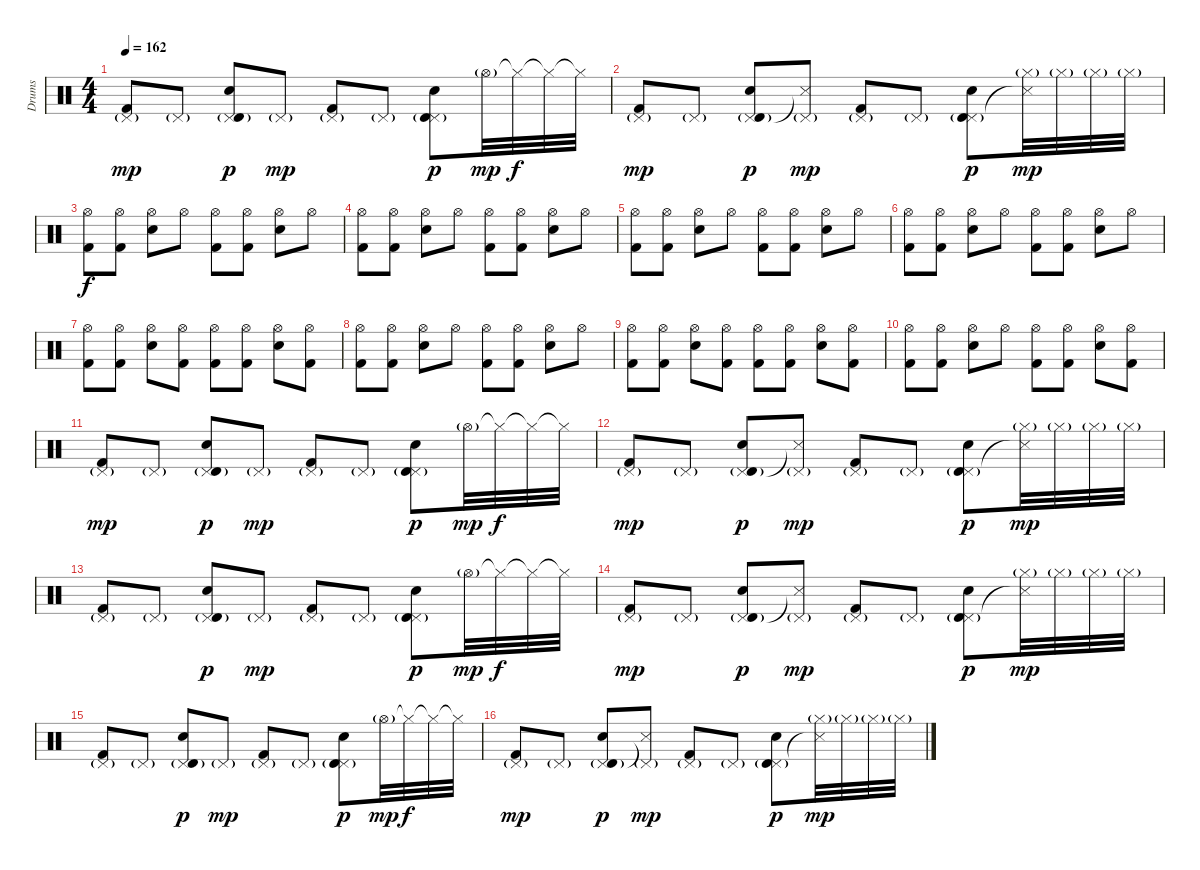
\track ("Drums" "Drums") {instrument percussion}
\staff {score}
\articulation defaults
\ts (4 4)
\tempo 162
\clef neutral
\ks c
("Pedal Hi-Hat (hit)"{g} "Kick (hit) 2").8{dy mp} "Pedal Hi-Hat (hit)"{g}.8 ("Pedal Hi-Hat (hit)"{g} "Timbale high (hit)" "Electric Snare (hit)").8{dy p} "Pedal Hi-Hat (hit)"{g}.8{dy mp} ("Pedal Hi-Hat (hit)"{g} "Kick (hit) 2").8 "Pedal Hi-Hat (hit)"{g}.8 ("Pedal Hi-Hat (hit)"{g} "Timbale high (hit)" "Electric Snare (hit)").8{dy p} "Hi-Hat (open)"{g}.32{dy mp} "Hi-Hat (closed)"{t}.32{dy f} "Hi-Hat (closed)"{t}.32 "Hi-Hat (closed)"{t}.32 |
("Pedal Hi-Hat (hit)"{g} "Kick (hit) 2").8{dy mp} "Pedal Hi-Hat (hit)"{g}.8 ("Pedal Hi-Hat (hit)"{g} "Timbale high (hit)" "Electric Snare (hit)").8{dy p} ("Pedal Hi-Hat (hit)"{g} "Snare (side stick) 3"{t}).8{dy mp} ("Pedal Hi-Hat (hit)"{g} "Kick (hit) 2").8 "Pedal Hi-Hat (hit)"{g}.8 ("Pedal Hi-Hat (hit)"{g} "Timbale high (hit)" "Electric Snare (hit)").8{dy p} ("Hi-Hat (closed)"{g} "Snare (side stick) 3"{t}).32{dy mp} "Hi-Hat (closed)"{g}.32 "Hi-Hat (closed)"{g}.32 "Hi-Hat (closed)"{g}.32 |
("Hi-Hat (open)" "Kick (hit) 2").8{dy f} ("Hi-Hat (open)" "Kick (hit) 2").8 ("Hi-Hat (open)" "Electric Snare (hit)").8 "Hi-Hat (open)".8 ("Hi-Hat (open)" "Kick (hit) 2").8 ("Hi-Hat (open)" "Kick (hit) 2").8 ("Hi-Hat (open)" "Electric Snare (hit)").8 "Hi-Hat (open)".8 |
("Hi-Hat (open)" "Kick (hit) 2").8 ("Hi-Hat (open)" "Kick (hit) 2").8 ("Hi-Hat (open)" "Electric Snare (hit)").8 "Hi-Hat (open)".8 ("Hi-Hat (open)" "Kick (hit) 2").8 ("Hi-Hat (open)" "Kick (hit) 2").8 ("Hi-Hat (open)" "Electric Snare (hit)").8 "Hi-Hat (open)".8 |
("Hi-Hat (open)" "Kick (hit) 2").8 ("Hi-Hat (open)" "Kick (hit) 2").8 ("Hi-Hat (open)" "Electric Snare (hit)").8 "Hi-Hat (open)".8 ("Hi-Hat (open)" "Kick (hit) 2").8 ("Hi-Hat (open)" "Kick (hit) 2").8 ("Hi-Hat (open)" "Electric Snare (hit)").8 "Hi-Hat (open)".8 |
("Hi-Hat (open)" "Kick (hit) 2").8 ("Hi-Hat (open)" "Kick (hit) 2").8 ("Hi-Hat (open)" "Electric Snare (hit)").8 "Hi-Hat (open)".8 ("Hi-Hat (open)" "Kick (hit) 2").8 ("Hi-Hat (open)" "Kick (hit) 2").8 ("Hi-Hat (open)" "Electric Snare (hit)").8 "Hi-Hat (open)".8 |
("Hi-Hat (open)" "Kick (hit) 2").8 ("Hi-Hat (open)" "Kick (hit) 2").8 ("Hi-Hat (open)" "Electric Snare (hit)").8 ("Hi-Hat (open)" "Kick (hit) 2").8 ("Hi-Hat (open)" "Kick (hit) 2").8 ("Hi-Hat (open)" "Kick (hit) 2").8 ("Hi-Hat (open)" "Electric Snare (hit)").8 ("Hi-Hat (open)" "Kick (hit) 2").8 |
("Hi-Hat (open)" "Kick (hit) 2").8 ("Hi-Hat (open)" "Kick (hit) 2").8 ("Hi-Hat (open)" "Electric Snare (hit)").8 "Hi-Hat (open)".8 ("Hi-Hat (open)" "Kick (hit) 2").8 ("Hi-Hat (open)" "Kick (hit) 2").8 ("Hi-Hat (open)" "Electric Snare (hit)").8 "Hi-Hat (open)".8 |
("Hi-Hat (open)" "Kick (hit) 2").8 ("Hi-Hat (open)" "Kick (hit) 2").8 ("Hi-Hat (open)" "Electric Snare (hit)").8 ("Hi-Hat (open)" "Kick (hit) 2").8 ("Hi-Hat (open)" "Kick (hit) 2").8 ("Hi-Hat (open)" "Kick (hit) 2").8 ("Hi-Hat (open)" "Electric Snare (hit)").8 ("Hi-Hat (open)" "Kick (hit) 2").8 |
("Hi-Hat (open)" "Kick (hit) 2").8 ("Hi-Hat (open)" "Kick (hit) 2").8 ("Hi-Hat (open)" "Electric Snare (hit)").8 "Hi-Hat (open)".8 ("Hi-Hat (open)" "Kick (hit) 2").8 ("Hi-Hat (open)" "Kick (hit) 2").8 ("Hi-Hat (open)" "Electric Snare (hit)").8 ("Hi-Hat (open)" "Kick (hit) 2").8 |
("Pedal Hi-Hat (hit)"{g} "Kick (hit) 2").8{dy mp} "Pedal Hi-Hat (hit)"{g}.8 ("Pedal Hi-Hat (hit)"{g} "Timbale high (hit)" "Electric Snare (hit)").8{dy p} "Pedal Hi-Hat (hit)"{g}.8{dy mp} ("Pedal Hi-Hat (hit)"{g} "Kick (hit) 2").8 "Pedal Hi-Hat (hit)"{g}.8 ("Pedal Hi-Hat (hit)"{g} "Timbale high (hit)" "Electric Snare (hit)").8{dy p} "Hi-Hat (open)"{g}.32{dy mp} "Hi-Hat (closed)"{t}.32{dy f} "Hi-Hat (closed)"{t}.32 "Hi-Hat (closed)"{t}.32 |
("Pedal Hi-Hat (hit)"{g} "Kick (hit) 2").8{dy mp} "Pedal Hi-Hat (hit)"{g}.8 ("Pedal Hi-Hat (hit)"{g} "Timbale high (hit)" "Electric Snare (hit)").8{dy p} ("Pedal Hi-Hat (hit)"{g} "Snare (side stick) 3"{t}).8{dy mp} ("Pedal Hi-Hat (hit)"{g} "Kick (hit) 2").8 "Pedal Hi-Hat (hit)"{g}.8 ("Pedal Hi-Hat (hit)"{g} "Timbale high (hit)" "Electric Snare (hit)").8{dy p} ("Hi-Hat (closed)"{g} "Snare (side stick) 3"{t}).32{dy mp} "Hi-Hat (closed)"{g}.32 "Hi-Hat (closed)"{g}.32 "Hi-Hat (closed)"{g}.32 |
("Pedal Hi-Hat (hit)"{g} "Kick (hit) 2").8 "Pedal Hi-Hat (hit)"{g}.8 ("Pedal Hi-Hat (hit)"{g} "Timbale high (hit)" "Electric Snare (hit)").8{dy p} "Pedal Hi-Hat (hit)"{g}.8{dy mp} ("Pedal Hi-Hat (hit)"{g} "Kick (hit) 2").8 "Pedal Hi-Hat (hit)"{g}.8 ("Pedal Hi-Hat (hit)"{g} "Timbale high (hit)" "Electric Snare (hit)").8{dy p} "Hi-Hat (open)"{g}.32{dy mp} "Hi-Hat (closed)"{t}.32{dy f} "Hi-Hat (closed)"{t}.32 "Hi-Hat (closed)"{t}.32 |
("Pedal Hi-Hat (hit)"{g} "Kick (hit) 2").8{dy mp} "Pedal Hi-Hat (hit)"{g}.8 ("Pedal Hi-Hat (hit)"{g} "Timbale high (hit)" "Electric Snare (hit)").8{dy p} ("Pedal Hi-Hat (hit)"{g} "Snare (side stick) 3"{t}).8{dy mp} ("Pedal Hi-Hat (hit)"{g} "Kick (hit) 2").8 "Pedal Hi-Hat (hit)"{g}.8 ("Pedal Hi-Hat (hit)"{g} "Timbale high (hit)" "Electric Snare (hit)").8{dy p} ("Hi-Hat (closed)"{g} "Snare (side stick) 3"{t}).32{dy mp} "Hi-Hat (closed)"{g}.32 "Hi-Hat (closed)"{g}.32 "Hi-Hat (closed)"{g}.32 |
("Pedal Hi-Hat (hit)"{g} "Kick (hit) 2").8 "Pedal Hi-Hat (hit)"{g}.8 ("Pedal Hi-Hat (hit)"{g} "Timbale high (hit)" "Electric Snare (hit)").8{dy p} "Pedal Hi-Hat (hit)"{g}.8{dy mp} ("Pedal Hi-Hat (hit)"{g} "Kick (hit) 2").8 "Pedal Hi-Hat (hit)"{g}.8 ("Pedal Hi-Hat (hit)"{g} "Timbale high (hit)" "Electric Snare (hit)").8{dy p} "Hi-Hat (open)"{g}.32{dy mp} "Hi-Hat (closed)"{t}.32{dy f} "Hi-Hat (closed)"{t}.32 "Hi-Hat (closed)"{t}.32 |
("Pedal Hi-Hat (hit)"{g} "Kick (hit) 2").8{dy mp} "Pedal Hi-Hat (hit)"{g}.8 ("Pedal Hi-Hat (hit)"{g} "Timbale high (hit)" "Electric Snare (hit)").8{dy p} ("Pedal Hi-Hat (hit)"{g} "Snare (side stick) 3"{t}).8{dy mp} ("Pedal Hi-Hat (hit)"{g} "Kick (hit) 2").8 "Pedal Hi-Hat (hit)"{g}.8 ("Pedal Hi-Hat (hit)"{g} "Timbale high (hit)" "Electric Snare (hit)").8{dy p} ("Hi-Hat (closed)"{g} "Snare (side stick) 3"{t}).32{dy mp} "Hi-Hat (closed)"{g}.32 "Hi-Hat (closed)"{g}.32 "Hi-Hat (closed)"{g}.32
